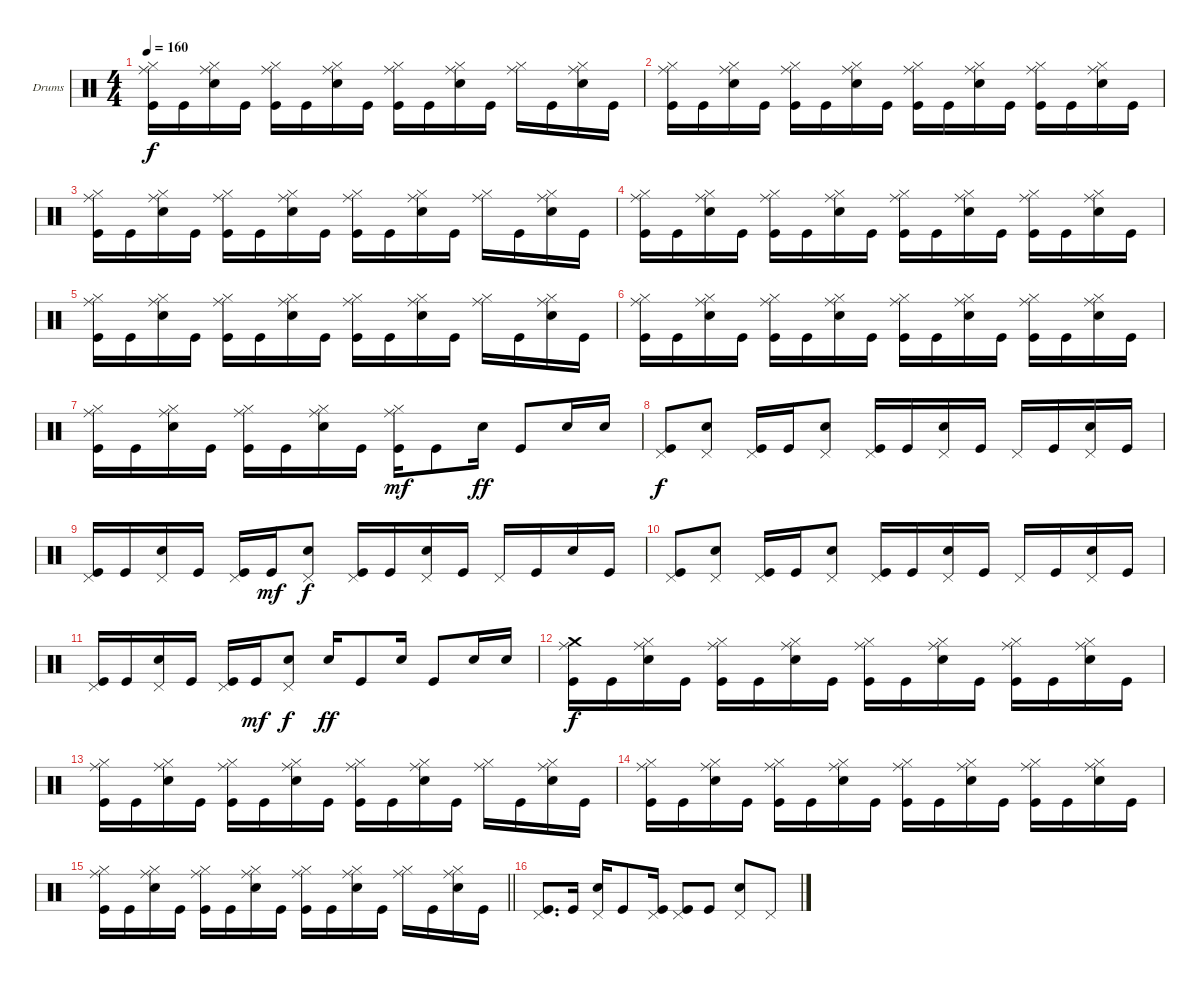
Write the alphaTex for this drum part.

\defaultSystemsLayout 4
\bracketExtendMode groupsimilarinstruments
\firstSystemTrackNameOrientation horizontal
\otherSystemsTrackNameOrientation horizontal
\track ("Drumkit" "Drums") {instrument percussion}
\staff {score}
\articulation defaults
\ts (4 4)
\tempo 160
\clef neutral
\ks aminor
("Kick (hit)" "Ride (middle)" "Hi-Hat (closed)").16{dy f} "Kick (hit)".16 ("Snare (hit) 2" "Hi-Hat (closed)" "Ride (middle)").16 "Kick (hit)".16 ("Kick (hit)" "Hi-Hat (closed)" "Ride (middle)").16 "Kick (hit)".16 ("Snare (hit) 2" "Hi-Hat (closed)" "Ride (middle)").16 "Kick (hit)".16 ("Kick (hit)" "Hi-Hat (closed)" "Ride (middle)").16 "Kick (hit)".16 ("Snare (hit) 2" "Hi-Hat (closed)" "Ride (middle)").16 "Kick (hit)".16 ("Hi-Hat (closed)" "Ride (middle)").16 "Kick (hit)".16 ("Snare (hit) 2" "Hi-Hat (closed)" "Ride (middle)").16 "Kick (hit)".16 |
("Kick (hit)" "Ride (middle)" "Hi-Hat (closed)").16 "Kick (hit)".16 ("Snare (hit) 2" "Hi-Hat (closed)" "Ride (middle)").16 "Kick (hit)".16 ("Kick (hit)" "Hi-Hat (closed)" "Ride (middle)").16 "Kick (hit)".16 ("Snare (hit) 2" "Hi-Hat (closed)" "Ride (middle)").16 "Kick (hit)".16 ("Kick (hit)" "Hi-Hat (closed)" "Ride (middle)").16 "Kick (hit)".16 ("Snare (hit) 2" "Hi-Hat (closed)" "Ride (middle)").16 "Kick (hit)".16 ("Kick (hit)" "Hi-Hat (closed)" "Ride (middle)").16 "Kick (hit)".16 ("Snare (hit) 2" "Hi-Hat (closed)" "Ride (middle)").16 "Kick (hit)".16 |
("Kick (hit)" "Ride (middle)" "Hi-Hat (closed)").16 "Kick (hit)".16 ("Snare (hit) 2" "Hi-Hat (closed)" "Ride (middle)").16 "Kick (hit)".16 ("Kick (hit)" "Hi-Hat (closed)" "Ride (middle)").16 "Kick (hit)".16 ("Snare (hit) 2" "Hi-Hat (closed)" "Ride (middle)").16 "Kick (hit)".16 ("Kick (hit)" "Hi-Hat (closed)" "Ride (middle)").16 "Kick (hit)".16 ("Snare (hit) 2" "Hi-Hat (closed)" "Ride (middle)").16 "Kick (hit)".16 ("Hi-Hat (closed)" "Ride (middle)").16 "Kick (hit)".16 ("Snare (hit) 2" "Hi-Hat (closed)" "Ride (middle)").16 "Kick (hit)".16 |
("Kick (hit)" "Ride (middle)" "Hi-Hat (closed)").16 "Kick (hit)".16 ("Snare (hit) 2" "Hi-Hat (closed)" "Ride (middle)").16 "Kick (hit)".16 ("Kick (hit)" "Hi-Hat (closed)" "Ride (middle)").16 "Kick (hit)".16 ("Snare (hit) 2" "Hi-Hat (closed)" "Ride (middle)").16 "Kick (hit)".16 ("Kick (hit)" "Hi-Hat (closed)" "Ride (middle)").16 "Kick (hit)".16 ("Snare (hit) 2" "Hi-Hat (closed)" "Ride (middle)").16 "Kick (hit)".16 ("Kick (hit)" "Hi-Hat (closed)" "Ride (middle)").16 "Kick (hit)".16 ("Snare (hit) 2" "Hi-Hat (closed)" "Ride (middle)").16 "Kick (hit)".16 |
("Kick (hit)" "Ride (middle)" "Hi-Hat (closed)").16 "Kick (hit)".16 ("Snare (hit) 2" "Hi-Hat (closed)" "Ride (middle)").16 "Kick (hit)".16 ("Kick (hit)" "Hi-Hat (closed)" "Ride (middle)").16 "Kick (hit)".16 ("Snare (hit) 2" "Hi-Hat (closed)" "Ride (middle)").16 "Kick (hit)".16 ("Kick (hit)" "Hi-Hat (closed)" "Ride (middle)").16 "Kick (hit)".16 ("Snare (hit) 2" "Hi-Hat (closed)" "Ride (middle)").16 "Kick (hit)".16 ("Hi-Hat (closed)" "Ride (middle)").16 "Kick (hit)".16 ("Snare (hit) 2" "Hi-Hat (closed)" "Ride (middle)").16 "Kick (hit)".16 |
("Kick (hit)" "Ride (middle)" "Hi-Hat (closed)").16 "Kick (hit)".16 ("Snare (hit) 2" "Hi-Hat (closed)" "Ride (middle)").16 "Kick (hit)".16 ("Kick (hit)" "Hi-Hat (closed)" "Ride (middle)").16 "Kick (hit)".16 ("Snare (hit) 2" "Hi-Hat (closed)" "Ride (middle)").16 "Kick (hit)".16 ("Kick (hit)" "Hi-Hat (closed)" "Ride (middle)").16 "Kick (hit)".16 ("Snare (hit) 2" "Hi-Hat (closed)" "Ride (middle)").16 "Kick (hit)".16 ("Kick (hit)" "Hi-Hat (closed)" "Ride (middle)").16 "Kick (hit)".16 ("Snare (hit) 2" "Hi-Hat (closed)" "Ride (middle)").16 "Kick (hit)".16 |
("Kick (hit)" "Ride (middle)" "Hi-Hat (closed)").16 "Kick (hit)".16 ("Snare (hit) 2" "Hi-Hat (closed)" "Ride (middle)").16 "Kick (hit)".16 ("Kick (hit)" "Hi-Hat (closed)" "Ride (middle)").16 "Kick (hit)".16 ("Snare (hit) 2" "Hi-Hat (closed)" "Ride (middle)").16 "Kick (hit)".16 ("Hi-Hat (closed)" "Ride (middle)" "Kick (hit)").16{dy mf} "Kick (hit)".8 "Snare (hit) 2".16{dy ff} "Kick (hit)".8 "Snare (hit) 2".16 "Snare (hit) 2".16 |
("Kick (hit)" "Pedal Hi-Hat (hit)").8{dy f} ("Snare (hit) 2" "Pedal Hi-Hat (hit)").8 ("Kick (hit)" "Pedal Hi-Hat (hit)").16 "Kick (hit)".16 ("Snare (hit) 2" "Pedal Hi-Hat (hit)").8 ("Kick (hit)" "Pedal Hi-Hat (hit)").16 "Kick (hit)".16 ("Snare (hit) 2" "Pedal Hi-Hat (hit)").16 "Kick (hit)".16 "Pedal Hi-Hat (hit)".16 "Kick (hit)".16 ("Snare (hit) 2" "Pedal Hi-Hat (hit)").16 "Kick (hit)".16 |
("Kick (hit)" "Pedal Hi-Hat (hit)").16 "Kick (hit)".16 ("Snare (hit) 2" "Pedal Hi-Hat (hit)").16 "Kick (hit)".16 ("Kick (hit)" "Pedal Hi-Hat (hit)").16 "Kick (hit)".16{dy mf} ("Snare (hit) 2" "Pedal Hi-Hat (hit)").8{dy f} ("Kick (hit)" "Pedal Hi-Hat (hit)").16 "Kick (hit)".16 ("Snare (hit) 2" "Pedal Hi-Hat (hit)").16 "Kick (hit)".16 "Pedal Hi-Hat (hit)".16 "Kick (hit)".16 "Snare (hit) 2".16 "Kick (hit)".16 |
("Kick (hit)" "Pedal Hi-Hat (hit)").8 ("Snare (hit) 2" "Pedal Hi-Hat (hit)").8 ("Kick (hit)" "Pedal Hi-Hat (hit)").16 "Kick (hit)".16 ("Snare (hit) 2" "Pedal Hi-Hat (hit)").8 ("Kick (hit)" "Pedal Hi-Hat (hit)").16 "Kick (hit)".16 ("Snare (hit) 2" "Pedal Hi-Hat (hit)").16 "Kick (hit)".16 "Pedal Hi-Hat (hit)".16 "Kick (hit)".16 ("Snare (hit) 2" "Pedal Hi-Hat (hit)").16 "Kick (hit)".16 |
("Kick (hit)" "Pedal Hi-Hat (hit)").16 "Kick (hit)".16 ("Snare (hit) 2" "Pedal Hi-Hat (hit)").16 "Kick (hit)".16 ("Kick (hit)" "Pedal Hi-Hat (hit)").16 "Kick (hit)".16{dy mf} ("Snare (hit) 2" "Pedal Hi-Hat (hit)").8{dy f} "Snare (hit) 2".16{dy ff} "Kick (hit)".8 "Snare (hit) 2".16 "Kick (hit)".8 "Snare (hit) 2".16 "Snare (hit) 2".16 |
("Kick (hit)" "Ride (middle)" "Crash medium (hit)").16{dy f} "Kick (hit)".16 ("Snare (hit) 2" "Hi-Hat (closed)" "Ride (middle)").16 "Kick (hit)".16 ("Kick (hit)" "Hi-Hat (closed)" "Ride (middle)").16 "Kick (hit)".16 ("Snare (hit) 2" "Hi-Hat (closed)" "Ride (middle)").16 "Kick (hit)".16 ("Kick (hit)" "Hi-Hat (closed)" "Ride (middle)").16 "Kick (hit)".16 ("Snare (hit) 2" "Hi-Hat (closed)" "Ride (middle)").16 "Kick (hit)".16 ("Kick (hit)" "Hi-Hat (closed)" "Ride (middle)").16 "Kick (hit)".16 ("Snare (hit) 2" "Hi-Hat (closed)" "Ride (middle)").16 "Kick (hit)".16 |
("Kick (hit)" "Ride (middle)" "Hi-Hat (closed)").16 "Kick (hit)".16 ("Snare (hit) 2" "Hi-Hat (closed)" "Ride (middle)").16 "Kick (hit)".16 ("Kick (hit)" "Hi-Hat (closed)" "Ride (middle)").16 "Kick (hit)".16 ("Snare (hit) 2" "Hi-Hat (closed)" "Ride (middle)").16 "Kick (hit)".16 ("Kick (hit)" "Hi-Hat (closed)" "Ride (middle)").16 "Kick (hit)".16 ("Snare (hit) 2" "Hi-Hat (closed)" "Ride (middle)").16 "Kick (hit)".16 ("Hi-Hat (closed)" "Ride (middle)").16 "Kick (hit)".16 ("Snare (hit) 2" "Hi-Hat (closed)" "Ride (middle)").16 "Kick (hit)".16 |
("Kick (hit)" "Ride (middle)" "Hi-Hat (closed)").16 "Kick (hit)".16 ("Snare (hit) 2" "Hi-Hat (closed)" "Ride (middle)").16 "Kick (hit)".16 ("Kick (hit)" "Hi-Hat (closed)" "Ride (middle)").16 "Kick (hit)".16 ("Snare (hit) 2" "Hi-Hat (closed)" "Ride (middle)").16 "Kick (hit)".16 ("Kick (hit)" "Hi-Hat (closed)" "Ride (middle)").16 "Kick (hit)".16 ("Snare (hit) 2" "Hi-Hat (closed)" "Ride (middle)").16 "Kick (hit)".16 ("Kick (hit)" "Hi-Hat (closed)" "Ride (middle)").16 "Kick (hit)".16 ("Snare (hit) 2" "Hi-Hat (closed)" "Ride (middle)").16 "Kick (hit)".16 |
\barLineRight lightlight
("Kick (hit)" "Ride (middle)" "Hi-Hat (closed)").16 "Kick (hit)".16 ("Snare (hit) 2" "Hi-Hat (closed)" "Ride (middle)").16 "Kick (hit)".16 ("Kick (hit)" "Hi-Hat (closed)" "Ride (middle)").16 "Kick (hit)".16 ("Snare (hit) 2" "Hi-Hat (closed)" "Ride (middle)").16 "Kick (hit)".16 ("Kick (hit)" "Hi-Hat (closed)" "Ride (middle)").16 "Kick (hit)".16 ("Snare (hit) 2" "Hi-Hat (closed)" "Ride (middle)").16 "Kick (hit)".16 ("Hi-Hat (closed)" "Ride (middle)").16 "Kick (hit)".16 ("Snare (hit) 2" "Hi-Hat (closed)" "Ride (middle)").16 "Kick (hit)".16 |
("Kick (hit)" "Pedal Hi-Hat (hit)").8{d} "Kick (hit)".16 ("Snare (hit) 2" "Pedal Hi-Hat (hit)").16 "Kick (hit)".8 ("Kick (hit)" "Pedal Hi-Hat (hit)").16 ("Kick (hit)" "Pedal Hi-Hat (hit)").8 "Kick (hit)".8 ("Snare (hit) 2" "Pedal Hi-Hat (hit)").8 "Pedal Hi-Hat (hit)".8
